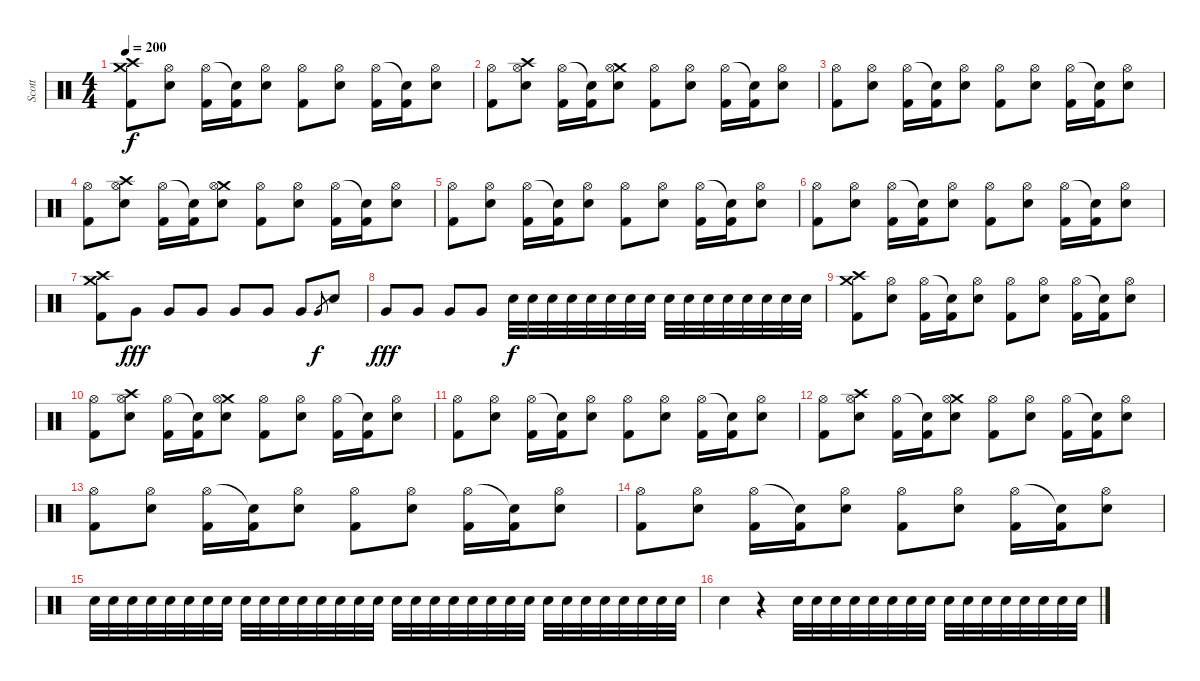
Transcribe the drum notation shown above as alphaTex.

\track ("Scott" "Scott") {instrument percussion}
\staff {score}
\articulation defaults
\ts (4 4)
\tempo 200
\clef neutral
\ks c
("Crash medium (hit)" "Crash high (hit)" "Kick (hit) 2").8{dy f} ("Hi-Hat (open)" "Snare (hit) 2").8 ("Hi-Hat (open)" "Kick (hit) 2").16 ("Snare (hit)"{t} "Kick (hit) 2").16 ("Hi-Hat (open)" "Snare (hit) 2").8 ("Hi-Hat (open)" "Kick (hit) 2").8 ("Hi-Hat (open)" "Snare (hit) 2").8 ("Hi-Hat (open)" "Kick (hit) 2").16 ("Snare (hit)"{t} "Kick (hit) 2").16 ("Hi-Hat (open)" "Snare (hit) 2").8 |
("Hi-Hat (open)" "Kick (hit) 2").8 ("Crash high (hit)" "Hi-Hat (open)" "Snare (hit) 2").8 ("Hi-Hat (open)" "Kick (hit) 2").16 ("Snare (hit)"{t} "Kick (hit) 2").16 ("Crash medium (hit)" "Hi-Hat (open)" "Snare (hit) 2").8 ("Hi-Hat (open)" "Kick (hit) 2").8 ("Hi-Hat (open)" "Snare (hit) 2").8 ("Hi-Hat (open)" "Kick (hit) 2").16 ("Snare (hit)"{t} "Kick (hit) 2").16 ("Hi-Hat (open)" "Snare (hit) 2").8 |
("Hi-Hat (open)" "Kick (hit) 2").8 ("Hi-Hat (open)" "Snare (hit) 2").8 ("Hi-Hat (open)" "Kick (hit) 2").16 ("Snare (hit)"{t} "Kick (hit) 2").16 ("Hi-Hat (open)" "Snare (hit) 2").8 ("Hi-Hat (open)" "Kick (hit) 2").8 ("Hi-Hat (open)" "Snare (hit) 2").8 ("Hi-Hat (open)" "Kick (hit) 2").16 ("Snare (hit)"{t} "Kick (hit) 2").16 ("Hi-Hat (open)" "Snare (hit) 2").8 |
("Hi-Hat (open)" "Kick (hit) 2").8 ("Crash high (hit)" "Hi-Hat (open)" "Snare (hit) 2").8 ("Hi-Hat (open)" "Kick (hit) 2").16 ("Snare (hit)"{t} "Kick (hit) 2").16 ("Crash medium (hit)" "Hi-Hat (open)" "Snare (hit) 2").8 ("Hi-Hat (open)" "Kick (hit) 2").8 ("Hi-Hat (open)" "Snare (hit) 2").8 ("Hi-Hat (open)" "Kick (hit) 2").16 ("Snare (hit)"{t} "Kick (hit) 2").16 ("Hi-Hat (open)" "Snare (hit) 2").8 |
("Hi-Hat (open)" "Kick (hit) 2").8 ("Hi-Hat (open)" "Snare (hit) 2").8 ("Hi-Hat (open)" "Kick (hit) 2").16 ("Snare (hit)"{t} "Kick (hit) 2").16 ("Hi-Hat (open)" "Snare (hit) 2").8 ("Hi-Hat (open)" "Kick (hit) 2").8 ("Hi-Hat (open)" "Snare (hit) 2").8 ("Hi-Hat (open)" "Kick (hit) 2").16 ("Snare (hit)"{t} "Kick (hit) 2").16 ("Hi-Hat (open)" "Snare (hit) 2").8 |
("Hi-Hat (open)" "Kick (hit) 2").8 ("Hi-Hat (open)" "Snare (hit) 2").8 ("Hi-Hat (open)" "Kick (hit) 2").16 ("Snare (hit)"{t} "Kick (hit) 2").16 ("Hi-Hat (open)" "Snare (hit) 2").8 ("Hi-Hat (open)" "Kick (hit) 2").8 ("Hi-Hat (open)" "Snare (hit) 2").8 ("Hi-Hat (open)" "Kick (hit) 2").16 ("Snare (hit)"{t} "Kick (hit) 2").16 ("Hi-Hat (open)" "Snare (hit) 2").8 |
("Crash medium (hit)" "Crash high (hit)" "Kick (hit) 2").8 "Very Low Tom (hit)".8{dy fff} "Very Low Tom (hit)".8 "Very Low Tom (hit)".8 "Very Low Tom (hit)".8 "Very Low Tom (hit)".8 "Very Low Tom (hit)".8 "Very Low Tom (hit)".8{gr dy f} "Snare (hit) 2".8 |
"Very Low Tom (hit)".8{dy fff} "Very Low Tom (hit)".8 "Very Low Tom (hit)".8 "Very Low Tom (hit)".8 "Snare (hit) 2".32{dy f} "Snare (hit) 2".32 "Snare (hit) 2".32 "Snare (hit) 2".32 "Snare (hit) 2".32 "Snare (hit) 2".32 "Snare (hit) 2".32 "Snare (hit) 2".32 "Snare (hit) 2".32 "Snare (hit) 2".32 "Snare (hit) 2".32 "Snare (hit) 2".32 "Snare (hit) 2".32 "Snare (hit) 2".32 "Snare (hit) 2".32 "Snare (hit) 2".32 |
("Crash medium (hit)" "Crash high (hit)" "Kick (hit) 2").8 ("Hi-Hat (open)" "Snare (hit) 2").8 ("Hi-Hat (open)" "Kick (hit) 2").16 ("Snare (hit)"{t} "Kick (hit) 2").16 ("Hi-Hat (open)" "Snare (hit) 2").8 ("Hi-Hat (open)" "Kick (hit) 2").8 ("Hi-Hat (open)" "Snare (hit) 2").8 ("Hi-Hat (open)" "Kick (hit) 2").16 ("Snare (hit)"{t} "Kick (hit) 2").16 ("Hi-Hat (open)" "Snare (hit) 2").8 |
("Hi-Hat (open)" "Kick (hit) 2").8 ("Crash high (hit)" "Hi-Hat (open)" "Snare (hit) 2").8 ("Hi-Hat (open)" "Kick (hit) 2").16 ("Snare (hit)"{t} "Kick (hit) 2").16 ("Crash medium (hit)" "Hi-Hat (open)" "Snare (hit) 2").8 ("Hi-Hat (open)" "Kick (hit) 2").8 ("Hi-Hat (open)" "Snare (hit) 2").8 ("Hi-Hat (open)" "Kick (hit) 2").16 ("Snare (hit)"{t} "Kick (hit) 2").16 ("Hi-Hat (open)" "Snare (hit) 2").8 |
("Hi-Hat (open)" "Kick (hit) 2").8 ("Hi-Hat (open)" "Snare (hit) 2").8 ("Hi-Hat (open)" "Kick (hit) 2").16 ("Snare (hit)"{t} "Kick (hit) 2").16 ("Hi-Hat (open)" "Snare (hit) 2").8 ("Hi-Hat (open)" "Kick (hit) 2").8 ("Hi-Hat (open)" "Snare (hit) 2").8 ("Hi-Hat (open)" "Kick (hit) 2").16 ("Snare (hit)"{t} "Kick (hit) 2").16 ("Hi-Hat (open)" "Snare (hit) 2").8 |
("Hi-Hat (open)" "Kick (hit) 2").8 ("Crash high (hit)" "Hi-Hat (open)" "Snare (hit) 2").8 ("Hi-Hat (open)" "Kick (hit) 2").16 ("Snare (hit)"{t} "Kick (hit) 2").16 ("Crash medium (hit)" "Hi-Hat (open)" "Snare (hit) 2").8 ("Hi-Hat (open)" "Kick (hit) 2").8 ("Hi-Hat (open)" "Snare (hit) 2").8 ("Hi-Hat (open)" "Kick (hit) 2").16 ("Snare (hit)"{t} "Kick (hit) 2").16 ("Hi-Hat (open)" "Snare (hit) 2").8 |
("Hi-Hat (open)" "Kick (hit) 2").8 ("Hi-Hat (open)" "Snare (hit) 2").8 ("Hi-Hat (open)" "Kick (hit) 2").16 ("Snare (hit)"{t} "Kick (hit) 2").16 ("Hi-Hat (open)" "Snare (hit) 2").8 ("Hi-Hat (open)" "Kick (hit) 2").8 ("Hi-Hat (open)" "Snare (hit) 2").8 ("Hi-Hat (open)" "Kick (hit) 2").16 ("Snare (hit)"{t} "Kick (hit) 2").16 ("Hi-Hat (open)" "Snare (hit) 2").8 |
("Hi-Hat (open)" "Kick (hit) 2").8 ("Hi-Hat (open)" "Snare (hit) 2").8 ("Hi-Hat (open)" "Kick (hit) 2").16 ("Snare (hit)"{t} "Kick (hit) 2").16 ("Hi-Hat (open)" "Snare (hit) 2").8 ("Hi-Hat (open)" "Kick (hit) 2").8 ("Hi-Hat (open)" "Snare (hit) 2").8 ("Hi-Hat (open)" "Kick (hit) 2").16 ("Snare (hit)"{t} "Kick (hit) 2").16 ("Hi-Hat (open)" "Snare (hit) 2").8 |
"Snare (hit) 2".32 "Snare (hit) 2".32 "Snare (hit) 2".32 "Snare (hit) 2".32 "Snare (hit) 2".32 "Snare (hit) 2".32 "Snare (hit) 2".32 "Snare (hit) 2".32 "Snare (hit) 2".32 "Snare (hit) 2".32 "Snare (hit) 2".32 "Snare (hit) 2".32 "Snare (hit) 2".32 "Snare (hit) 2".32 "Snare (hit) 2".32 "Snare (hit) 2".32 "Snare (hit) 2".32 "Snare (hit) 2".32 "Snare (hit) 2".32 "Snare (hit) 2".32 "Snare (hit) 2".32 "Snare (hit) 2".32 "Snare (hit) 2".32 "Snare (hit) 2".32 "Snare (hit) 2".32 "Snare (hit) 2".32 "Snare (hit) 2".32 "Snare (hit) 2".32 "Snare (hit) 2".32 "Snare (hit) 2".32 "Snare (hit) 2".32 "Snare (hit) 2".32 |
"Snare (hit) 2".4 r.4 "Snare (hit) 2".32 "Snare (hit) 2".32 "Snare (hit) 2".32 "Snare (hit) 2".32 "Snare (hit) 2".32 "Snare (hit) 2".32 "Snare (hit) 2".32 "Snare (hit) 2".32 "Snare (hit) 2".32 "Snare (hit) 2".32 "Snare (hit) 2".32 "Snare (hit) 2".32 "Snare (hit) 2".32 "Snare (hit) 2".32 "Snare (hit) 2".32 "Snare (hit) 2".32
